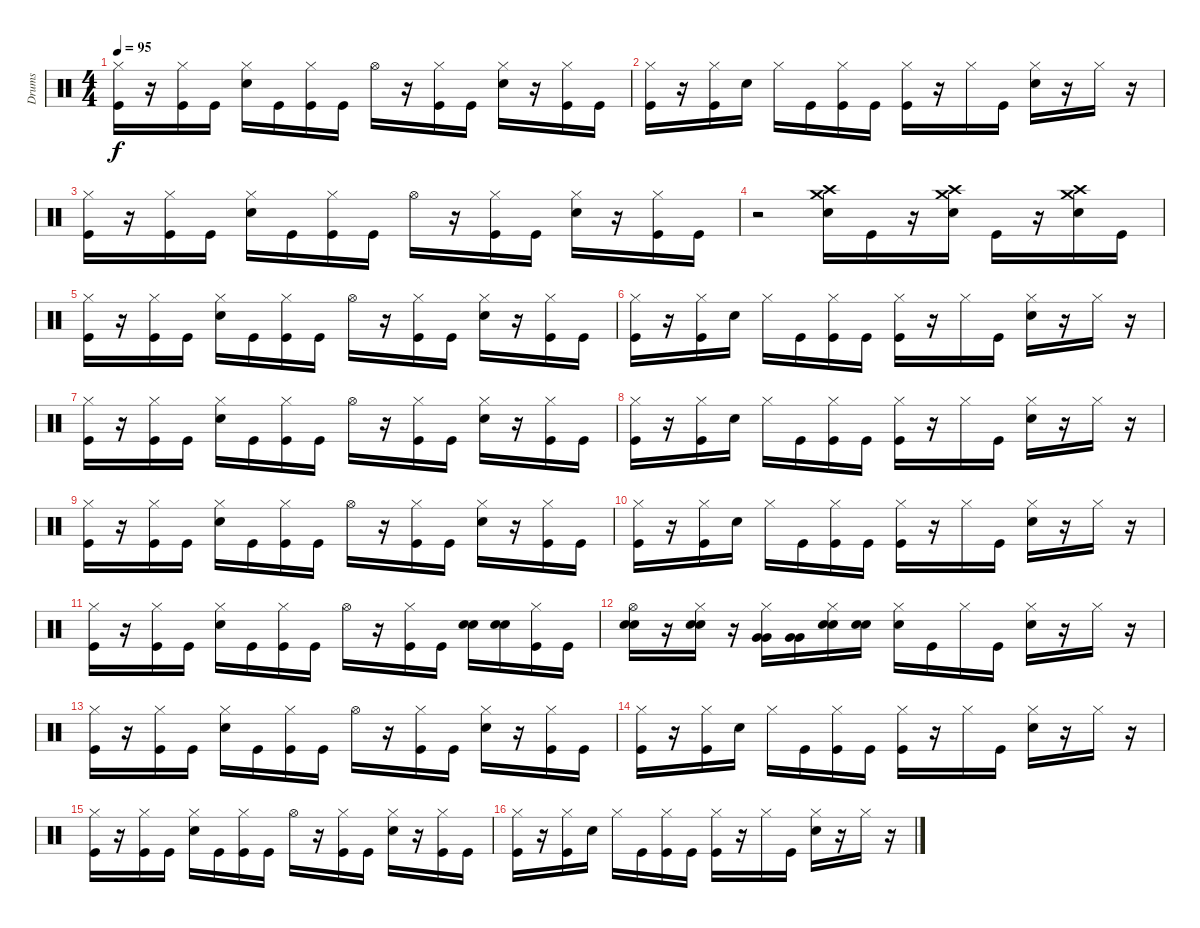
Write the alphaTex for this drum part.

\track ("Drums" "Drums") {instrument percussion}
\staff {score}
\articulation defaults
\ts (4 4)
\tempo 95
\clef neutral
\ks c
("Hi-Hat (closed)" "Kick (hit)").16{dy f} r.16 ("Hi-Hat (closed)" "Kick (hit)").16 "Kick (hit)".16 ("Hi-Hat (closed)" "Snare (hit) 2").16 "Kick (hit)".16 ("Hi-Hat (closed)" "Kick (hit)").16 "Kick (hit)".16 "Hi-Hat (open)".16 r.16 ("Hi-Hat (closed)" "Kick (hit)").16 "Kick (hit)".16 ("Hi-Hat (closed)" "Snare (hit) 2").16 r.16 ("Hi-Hat (closed)" "Kick (hit)").16 "Kick (hit)".16 |
("Hi-Hat (closed)" "Kick (hit)").16 r.16 ("Hi-Hat (closed)" "Kick (hit)").16 "Snare (hit) 2".16 "Hi-Hat (closed)".16 "Kick (hit)".16 ("Hi-Hat (closed)" "Kick (hit)").16 "Kick (hit)".16 ("Hi-Hat (closed)" "Kick (hit)").16 r.16 "Hi-Hat (closed)".16 "Kick (hit)".16 ("Hi-Hat (closed)" "Snare (hit) 2").16 r.16 "Hi-Hat (closed)".16 r.16 |
("Hi-Hat (closed)" "Kick (hit)").16 r.16 ("Hi-Hat (closed)" "Kick (hit)").16 "Kick (hit)".16 ("Hi-Hat (closed)" "Snare (hit) 2").16 "Kick (hit)".16 ("Hi-Hat (closed)" "Kick (hit)").16 "Kick (hit)".16 "Hi-Hat (open)".16 r.16 ("Hi-Hat (closed)" "Kick (hit)").16 "Kick (hit)".16 ("Hi-Hat (closed)" "Snare (hit) 2").16 r.16 ("Hi-Hat (closed)" "Kick (hit)").16 "Kick (hit)".16 |
r.2 ("Crash medium (hit)" "Crash high (hit)" "Snare (hit) 2").16 "Kick (hit)".16 r.16 ("Crash medium (hit)" "Crash high (hit)" "Snare (hit) 2").16 "Kick (hit)".16 r.16 ("Crash medium (hit)" "Crash high (hit)" "Snare (hit) 2").16 "Kick (hit)".16 |
("Hi-Hat (closed)" "Kick (hit)").16 r.16 ("Hi-Hat (closed)" "Kick (hit)").16 "Kick (hit)".16 ("Hi-Hat (closed)" "Snare (hit) 2").16 "Kick (hit)".16 ("Hi-Hat (closed)" "Kick (hit)").16 "Kick (hit)".16 "Hi-Hat (open)".16 r.16 ("Hi-Hat (closed)" "Kick (hit)").16 "Kick (hit)".16 ("Hi-Hat (closed)" "Snare (hit) 2").16 r.16 ("Hi-Hat (closed)" "Kick (hit)").16 "Kick (hit)".16 |
("Hi-Hat (closed)" "Kick (hit)").16 r.16 ("Hi-Hat (closed)" "Kick (hit)").16 "Snare (hit) 2".16 "Hi-Hat (closed)".16 "Kick (hit)".16 ("Hi-Hat (closed)" "Kick (hit)").16 "Kick (hit)".16 ("Hi-Hat (closed)" "Kick (hit)").16 r.16 "Hi-Hat (closed)".16 "Kick (hit)".16 ("Hi-Hat (closed)" "Snare (hit) 2").16 r.16 "Hi-Hat (closed)".16 r.16 |
("Hi-Hat (closed)" "Kick (hit)").16 r.16 ("Hi-Hat (closed)" "Kick (hit)").16 "Kick (hit)".16 ("Hi-Hat (closed)" "Snare (hit) 2").16 "Kick (hit)".16 ("Hi-Hat (closed)" "Kick (hit)").16 "Kick (hit)".16 "Hi-Hat (open)".16 r.16 ("Hi-Hat (closed)" "Kick (hit)").16 "Kick (hit)".16 ("Hi-Hat (closed)" "Snare (hit) 2").16 r.16 ("Hi-Hat (closed)" "Kick (hit)").16 "Kick (hit)".16 |
("Hi-Hat (closed)" "Kick (hit)").16 r.16 ("Hi-Hat (closed)" "Kick (hit)").16 "Snare (hit) 2".16 "Hi-Hat (closed)".16 "Kick (hit)".16 ("Hi-Hat (closed)" "Kick (hit)").16 "Kick (hit)".16 ("Hi-Hat (closed)" "Kick (hit)").16 r.16 "Hi-Hat (closed)".16 "Kick (hit)".16 ("Hi-Hat (closed)" "Snare (hit) 2").16 r.16 "Hi-Hat (closed)".16 r.16 |
("Hi-Hat (closed)" "Kick (hit)").16 r.16 ("Hi-Hat (closed)" "Kick (hit)").16 "Kick (hit)".16 ("Hi-Hat (closed)" "Snare (hit) 2").16 "Kick (hit)".16 ("Hi-Hat (closed)" "Kick (hit)").16 "Kick (hit)".16 "Hi-Hat (open)".16 r.16 ("Hi-Hat (closed)" "Kick (hit)").16 "Kick (hit)".16 ("Hi-Hat (closed)" "Snare (hit) 2").16 r.16 ("Hi-Hat (closed)" "Kick (hit)").16 "Kick (hit)".16 |
("Hi-Hat (closed)" "Kick (hit)").16 r.16 ("Hi-Hat (closed)" "Kick (hit)").16 "Snare (hit) 2".16 "Hi-Hat (closed)".16 "Kick (hit)".16 ("Hi-Hat (closed)" "Kick (hit)").16 "Kick (hit)".16 ("Hi-Hat (closed)" "Kick (hit)").16 r.16 "Hi-Hat (closed)".16 "Kick (hit)".16 ("Hi-Hat (closed)" "Snare (hit) 2").16 r.16 "Hi-Hat (closed)".16 r.16 |
("Hi-Hat (closed)" "Kick (hit)").16 r.16 ("Hi-Hat (closed)" "Kick (hit)").16 "Kick (hit)".16 ("Hi-Hat (closed)" "Snare (hit) 2").16 "Kick (hit)".16 ("Hi-Hat (closed)" "Kick (hit)").16 "Kick (hit)".16 "Hi-Hat (open)".16 r.16 ("Hi-Hat (closed)" "Kick (hit)").16 "Kick (hit)".16 ("Snare (hit) 2" "Snare (hit) 2").16 ("Snare (hit) 2" "Snare (hit) 2").16 ("Hi-Hat (closed)" "Kick (hit)").16 "Kick (hit)".16 |
("Hi-Hat (open)" "Snare (hit) 2" "Snare (hit) 2").16 r.16 ("Hi-Hat (closed)" "Snare (hit) 2" "Snare (hit) 2").16 r.16 ("Hi-Hat (closed)" "Very Low Tom (hit)" "Very Low Tom (hit)").16 ("Very Low Tom (hit)" "Very Low Tom (hit)").16 ("Hi-Hat (closed)" "Snare (hit) 2" "Snare (hit) 2").16 ("Snare (hit) 2" "Snare (hit) 2").16 ("Hi-Hat (closed)" "Snare (hit) 2").16 "Kick (hit)".16 "Hi-Hat (closed)".16 "Kick (hit)".16 ("Hi-Hat (closed)" "Snare (hit) 2").16 r.16 "Hi-Hat (closed)".16 r.16 |
("Hi-Hat (closed)" "Kick (hit)").16 r.16 ("Hi-Hat (closed)" "Kick (hit)").16 "Kick (hit)".16 ("Hi-Hat (closed)" "Snare (hit) 2").16 "Kick (hit)".16 ("Hi-Hat (closed)" "Kick (hit)").16 "Kick (hit)".16 "Hi-Hat (open)".16 r.16 ("Hi-Hat (closed)" "Kick (hit)").16 "Kick (hit)".16 ("Hi-Hat (closed)" "Snare (hit) 2").16 r.16 ("Hi-Hat (closed)" "Kick (hit)").16 "Kick (hit)".16 |
("Hi-Hat (closed)" "Kick (hit)").16 r.16 ("Hi-Hat (closed)" "Kick (hit)").16 "Snare (hit) 2".16 "Hi-Hat (closed)".16 "Kick (hit)".16 ("Hi-Hat (closed)" "Kick (hit)").16 "Kick (hit)".16 ("Hi-Hat (closed)" "Kick (hit)").16 r.16 "Hi-Hat (closed)".16 "Kick (hit)".16 ("Hi-Hat (closed)" "Snare (hit) 2").16 r.16 "Hi-Hat (closed)".16 r.16 |
("Hi-Hat (closed)" "Kick (hit)").16 r.16 ("Hi-Hat (closed)" "Kick (hit)").16 "Kick (hit)".16 ("Hi-Hat (closed)" "Snare (hit) 2").16 "Kick (hit)".16 ("Hi-Hat (closed)" "Kick (hit)").16 "Kick (hit)".16 "Hi-Hat (open)".16 r.16 ("Hi-Hat (closed)" "Kick (hit)").16 "Kick (hit)".16 ("Hi-Hat (closed)" "Snare (hit) 2").16 r.16 ("Hi-Hat (closed)" "Kick (hit)").16 "Kick (hit)".16 |
("Hi-Hat (closed)" "Kick (hit)").16 r.16 ("Hi-Hat (closed)" "Kick (hit)").16 "Snare (hit) 2".16 "Hi-Hat (closed)".16 "Kick (hit)".16 ("Hi-Hat (closed)" "Kick (hit)").16 "Kick (hit)".16 ("Hi-Hat (closed)" "Kick (hit)").16 r.16 "Hi-Hat (closed)".16 "Kick (hit)".16 ("Hi-Hat (closed)" "Snare (hit) 2").16 r.16 "Hi-Hat (closed)".16 r.16
